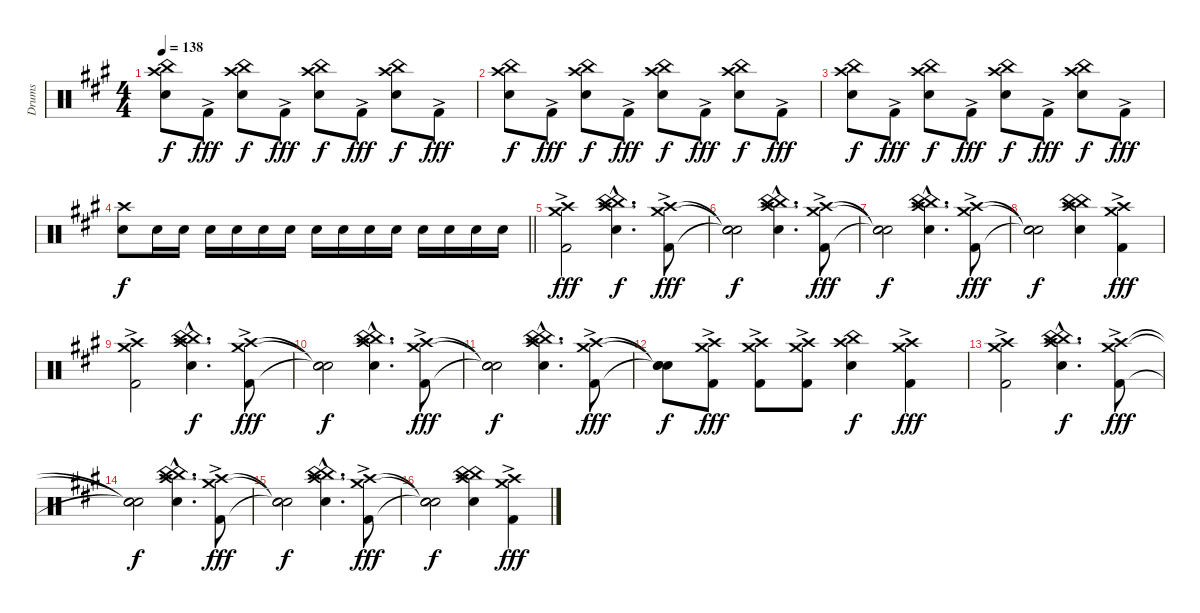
\track ("Drums" "Drums") {instrument percussion}
\staff {score}
\articulation defaults
\ts (4 4)
\tempo 138
\clef neutral
\ks f#minor
("China (hit)" "Crash high (hit)" "Snare (hit) 2").8{dy f} "Kick (hit) 2"{ac}.8{dy fff} ("China (hit)" "Crash high (hit)" "Snare (hit) 2").8{dy f} "Kick (hit) 2"{ac}.8{dy fff} ("China (hit)" "Crash high (hit)" "Snare (hit) 2").8{dy f} "Kick (hit) 2"{ac}.8{dy fff} ("China (hit)" "Crash high (hit)" "Snare (hit) 2").8{dy f} "Kick (hit) 2"{ac}.8{dy fff} |
("China (hit)" "Crash high (hit)" "Snare (hit) 2").8{dy f} "Kick (hit) 2"{ac}.8{dy fff} ("China (hit)" "Crash high (hit)" "Snare (hit) 2").8{dy f} "Kick (hit) 2"{ac}.8{dy fff} ("China (hit)" "Crash high (hit)" "Snare (hit) 2").8{dy f} "Kick (hit) 2"{ac}.8{dy fff} ("China (hit)" "Crash high (hit)" "Snare (hit) 2").8{dy f} "Kick (hit) 2"{ac}.8{dy fff} |
("China (hit)" "Crash high (hit)" "Snare (hit) 2").8{dy f} "Kick (hit) 2"{ac}.8{dy fff} ("China (hit)" "Crash high (hit)" "Snare (hit) 2").8{dy f} "Kick (hit) 2"{ac}.8{dy fff} ("China (hit)" "Crash high (hit)" "Snare (hit) 2").8{dy f} "Kick (hit) 2"{ac}.8{dy fff} ("China (hit)" "Crash high (hit)" "Snare (hit) 2").8{dy f} "Kick (hit) 2"{ac}.8{dy fff} |
\barLineRight lightlight
("Crash high (hit)" "Snare (hit) 2").8{dy f} "Snare (hit) 2".16 "Snare (hit) 2".16 "Snare (hit) 2".16 "Snare (hit) 2".16 "Snare (hit) 2".16 "Snare (hit) 2".16 "Snare (hit) 2".16 "Snare (hit) 2".16 "Snare (hit) 2".16 "Snare (hit) 2".16 "Snare (hit) 2".16 "Snare (hit) 2".16 "Snare (hit) 2".16 "Snare (hit) 2".16 |
("Crash high (hit)" "Crash medium (hit)" "Kick (hit) 2"{ac}).2{dy fff} ("China (hit)"{hac} "China (hit)"{hac} "Snare (hit) 2"{hac} "Crash high (hit)"{hac}).4{d dy f} ("Crash high (hit)" "Crash medium (hit)" "Kick (hit) 2"{ac}).8{dy fff} |
("Snare (hit)"{t} "Snare (hit)"{t} "Snare (hit)"{t}).2{dy f} ("China (hit)"{hac} "China (hit)"{hac} "Snare (hit) 2"{hac} "Crash high (hit)"{hac}).4{d} ("Crash high (hit)" "Crash medium (hit)" "Kick (hit) 2"{ac}).8{dy fff} |
("Snare (hit)"{t} "Snare (hit)"{t} "Snare (hit)"{t}).2{dy f} ("China (hit)"{hac} "China (hit)"{hac} "Snare (hit) 2"{hac} "Crash high (hit)"{hac}).4{d} ("Crash high (hit)" "Crash medium (hit)" "Kick (hit) 2"{ac}).8{dy fff} |
("Snare (hit)"{t} "Snare (hit)"{t} "Snare (hit)"{t}).2{dy f} ("China (hit)" "China (hit)" "Snare (hit) 2" "Crash high (hit)").4 ("Crash high (hit)" "Crash medium (hit)" "Kick (hit) 2"{ac}).4{dy fff} |
("Crash high (hit)" "Crash medium (hit)" "Kick (hit) 2"{ac}).2 ("China (hit)"{hac} "China (hit)"{hac} "Snare (hit) 2"{hac} "Crash high (hit)"{hac}).4{d dy f} ("Crash high (hit)" "Crash medium (hit)" "Kick (hit) 2"{ac}).8{dy fff} |
("Snare (hit)"{t} "Snare (hit)"{t} "Snare (hit)"{t}).2{dy f} ("China (hit)"{hac} "China (hit)"{hac} "Snare (hit) 2"{hac} "Crash high (hit)"{hac}).4{d} ("Crash high (hit)" "Crash medium (hit)" "Kick (hit) 2"{ac}).8{dy fff} |
("Snare (hit)"{t} "Snare (hit)"{t} "Snare (hit)"{t}).2{dy f} ("China (hit)"{hac} "China (hit)"{hac} "Snare (hit) 2"{hac} "Crash high (hit)"{hac}).4{d} ("Crash high (hit)" "Crash medium (hit)" "Kick (hit) 2"{ac}).8{dy fff} |
("Snare (hit)"{t} "Snare (hit)"{t} "Snare (hit)"{t}).8{dy f} ("Crash high (hit)" "Crash medium (hit)" "Kick (hit) 2"{ac}).8{dy fff} ("Crash high (hit)" "Crash medium (hit)" "Kick (hit) 2"{ac}).8 ("Crash high (hit)" "Crash medium (hit)" "Kick (hit) 2"{ac}).8 ("Crash high (hit)" "China (hit)" "Snare (hit) 2").4{dy f} ("Crash high (hit)" "Crash medium (hit)" "Kick (hit) 2"{ac}).4{dy fff} |
("Crash high (hit)" "Crash medium (hit)" "Kick (hit) 2"{ac}).2 ("China (hit)"{hac} "China (hit)"{hac} "Snare (hit) 2"{hac} "Crash high (hit)"{hac}).4{d dy f} ("Crash high (hit)" "Crash medium (hit)" "Kick (hit) 2"{ac}).8{dy fff} |
("Snare (hit)"{t} "Snare (hit)"{t} "Snare (hit)"{t}).2{dy f} ("China (hit)"{hac} "China (hit)"{hac} "Snare (hit) 2"{hac} "Crash high (hit)"{hac}).4{d} ("Crash high (hit)" "Crash medium (hit)" "Kick (hit) 2"{ac}).8{dy fff} |
("Snare (hit)"{t} "Snare (hit)"{t} "Snare (hit)"{t}).2{dy f} ("China (hit)"{hac} "China (hit)"{hac} "Snare (hit) 2"{hac} "Crash high (hit)"{hac}).4{d} ("Crash high (hit)" "Crash medium (hit)" "Kick (hit) 2"{ac}).8{dy fff} |
("Snare (hit)"{t} "Snare (hit)"{t} "Snare (hit)"{t}).2{dy f} ("China (hit)" "China (hit)" "Snare (hit) 2" "Crash high (hit)").4 ("Crash high (hit)" "Crash medium (hit)" "Kick (hit) 2"{ac}).4{dy fff}
